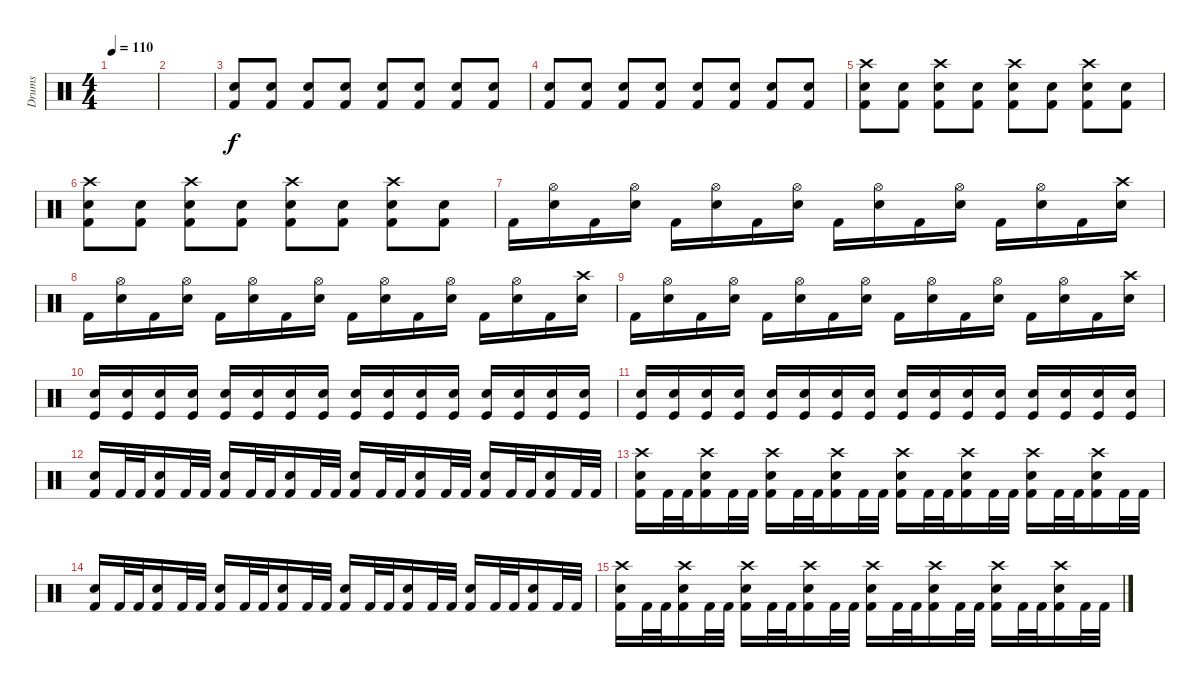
\track ("Drums" "Drums") {instrument percussion}
\staff {score}
\articulation defaults
\ts (4 4)
\tempo 110
\clef neutral
\ks c
|
|
("Electric Snare (hit)" "Kick (hit) 2").8 ("Electric Snare (hit)" "Kick (hit) 2").8 ("Electric Snare (hit)" "Kick (hit) 2").8 ("Electric Snare (hit)" "Kick (hit) 2").8 ("Electric Snare (hit)" "Kick (hit) 2").8 ("Electric Snare (hit)" "Kick (hit) 2").8 ("Electric Snare (hit)" "Kick (hit) 2").8 ("Electric Snare (hit)" "Kick (hit) 2").8 |
("Electric Snare (hit)" "Kick (hit) 2").8 ("Electric Snare (hit)" "Kick (hit) 2").8 ("Electric Snare (hit)" "Kick (hit) 2").8 ("Electric Snare (hit)" "Kick (hit) 2").8 ("Electric Snare (hit)" "Kick (hit) 2").8 ("Electric Snare (hit)" "Kick (hit) 2").8 ("Electric Snare (hit)" "Kick (hit) 2").8 ("Electric Snare (hit)" "Kick (hit) 2").8 |
("Crash high (hit)" "Electric Snare (hit)" "Kick (hit) 2").8 ("Electric Snare (hit)" "Kick (hit) 2").8 ("Crash high (hit)" "Electric Snare (hit)" "Kick (hit) 2").8 ("Electric Snare (hit)" "Kick (hit) 2").8 ("Crash high (hit)" "Electric Snare (hit)" "Kick (hit) 2").8 ("Electric Snare (hit)" "Kick (hit) 2").8 ("Crash high (hit)" "Electric Snare (hit)" "Kick (hit) 2").8 ("Electric Snare (hit)" "Kick (hit) 2").8 |
("Crash high (hit)" "Electric Snare (hit)" "Kick (hit) 2").8 ("Electric Snare (hit)" "Kick (hit) 2").8 ("Crash high (hit)" "Electric Snare (hit)" "Kick (hit) 2").8 ("Electric Snare (hit)" "Kick (hit) 2").8 ("Crash high (hit)" "Electric Snare (hit)" "Kick (hit) 2").8 ("Electric Snare (hit)" "Kick (hit) 2").8 ("Crash high (hit)" "Electric Snare (hit)" "Kick (hit) 2").8 ("Electric Snare (hit)" "Kick (hit) 2").8 |
"Kick (hit) 2".16 ("Hi-Hat (open)" "Electric Snare (hit)").16 "Kick (hit) 2".16 ("Hi-Hat (open)" "Electric Snare (hit)").16 "Kick (hit) 2".16 ("Hi-Hat (open)" "Electric Snare (hit)").16 "Kick (hit) 2".16 ("Hi-Hat (open)" "Electric Snare (hit)").16 "Kick (hit) 2".16 ("Hi-Hat (open)" "Electric Snare (hit)").16 "Kick (hit) 2".16 ("Hi-Hat (open)" "Electric Snare (hit)").16 "Kick (hit) 2".16 ("Hi-Hat (open)" "Electric Snare (hit)").16 "Kick (hit) 2".16 ("Crash high (hit)" "Electric Snare (hit)").16 |
"Kick (hit) 2".16 ("Hi-Hat (open)" "Electric Snare (hit)").16 "Kick (hit) 2".16 ("Hi-Hat (open)" "Electric Snare (hit)").16 "Kick (hit) 2".16 ("Hi-Hat (open)" "Electric Snare (hit)").16 "Kick (hit) 2".16 ("Hi-Hat (open)" "Electric Snare (hit)").16 "Kick (hit) 2".16 ("Hi-Hat (open)" "Electric Snare (hit)").16 "Kick (hit) 2".16 ("Hi-Hat (open)" "Electric Snare (hit)").16 "Kick (hit) 2".16 ("Hi-Hat (open)" "Electric Snare (hit)").16 "Kick (hit) 2".16 ("Crash high (hit)" "Electric Snare (hit)").16 |
"Kick (hit) 2".16 ("Hi-Hat (open)" "Electric Snare (hit)").16 "Kick (hit) 2".16 ("Hi-Hat (open)" "Electric Snare (hit)").16 "Kick (hit) 2".16 ("Hi-Hat (open)" "Electric Snare (hit)").16 "Kick (hit) 2".16 ("Hi-Hat (open)" "Electric Snare (hit)").16 "Kick (hit) 2".16 ("Hi-Hat (open)" "Electric Snare (hit)").16 "Kick (hit) 2".16 ("Hi-Hat (open)" "Electric Snare (hit)").16 "Kick (hit) 2".16 ("Hi-Hat (open)" "Electric Snare (hit)").16 "Kick (hit) 2".16 ("Crash high (hit)" "Electric Snare (hit)").16 |
("Electric Snare (hit)" "Kick (hit)").16 ("Electric Snare (hit)" "Kick (hit)").16 ("Electric Snare (hit)" "Kick (hit)").16 ("Electric Snare (hit)" "Kick (hit)").16 ("Electric Snare (hit)" "Kick (hit)").16 ("Electric Snare (hit)" "Kick (hit)").16 ("Electric Snare (hit)" "Kick (hit)").16 ("Electric Snare (hit)" "Kick (hit)").16 ("Electric Snare (hit)" "Kick (hit)").16 ("Electric Snare (hit)" "Kick (hit)").16 ("Electric Snare (hit)" "Kick (hit)").16 ("Electric Snare (hit)" "Kick (hit)").16 ("Electric Snare (hit)" "Kick (hit)").16 ("Electric Snare (hit)" "Kick (hit)").16 ("Electric Snare (hit)" "Kick (hit)").16 ("Electric Snare (hit)" "Kick (hit)").16 |
("Electric Snare (hit)" "Kick (hit)").16 ("Electric Snare (hit)" "Kick (hit)").16 ("Electric Snare (hit)" "Kick (hit)").16 ("Electric Snare (hit)" "Kick (hit)").16 ("Electric Snare (hit)" "Kick (hit)").16 ("Electric Snare (hit)" "Kick (hit)").16 ("Electric Snare (hit)" "Kick (hit)").16 ("Electric Snare (hit)" "Kick (hit)").16 ("Electric Snare (hit)" "Kick (hit)").16 ("Electric Snare (hit)" "Kick (hit)").16 ("Electric Snare (hit)" "Kick (hit)").16 ("Electric Snare (hit)" "Kick (hit)").16 ("Electric Snare (hit)" "Kick (hit)").16 ("Electric Snare (hit)" "Kick (hit)").16 ("Electric Snare (hit)" "Kick (hit)").16 ("Electric Snare (hit)" "Kick (hit)").16 |
("Electric Snare (hit)" "Kick (hit) 2").16 "Kick (hit) 2".32 "Kick (hit) 2".32 ("Electric Snare (hit)" "Kick (hit) 2").16 "Kick (hit) 2".32 "Kick (hit) 2".32 ("Electric Snare (hit)" "Kick (hit) 2").16 "Kick (hit) 2".32 "Kick (hit) 2".32 ("Electric Snare (hit)" "Kick (hit) 2").16 "Kick (hit) 2".32 "Kick (hit) 2".32 ("Electric Snare (hit)" "Kick (hit) 2").16 "Kick (hit) 2".32 "Kick (hit) 2".32 ("Electric Snare (hit)" "Kick (hit) 2").16 "Kick (hit) 2".32 "Kick (hit) 2".32 ("Electric Snare (hit)" "Kick (hit) 2").16 "Kick (hit) 2".32 "Kick (hit) 2".32 ("Electric Snare (hit)" "Kick (hit) 2").16 "Kick (hit) 2".32 "Kick (hit) 2".32 |
("Crash high (hit)" "Electric Snare (hit)" "Kick (hit) 2").16 "Kick (hit) 2".32 "Kick (hit) 2".32 ("Crash high (hit)" "Electric Snare (hit)" "Kick (hit) 2").16 "Kick (hit) 2".32 "Kick (hit) 2".32 ("Crash high (hit)" "Electric Snare (hit)" "Kick (hit) 2").16 "Kick (hit) 2".32 "Kick (hit) 2".32 ("Crash high (hit)" "Electric Snare (hit)" "Kick (hit) 2").16 "Kick (hit) 2".32 "Kick (hit) 2".32 ("Crash high (hit)" "Electric Snare (hit)" "Kick (hit) 2").16 "Kick (hit) 2".32 "Kick (hit) 2".32 ("Crash high (hit)" "Electric Snare (hit)" "Kick (hit) 2").16 "Kick (hit) 2".32 "Kick (hit) 2".32 ("Crash high (hit)" "Electric Snare (hit)" "Kick (hit) 2").16 "Kick (hit) 2".32 "Kick (hit) 2".32 ("Crash high (hit)" "Electric Snare (hit)" "Kick (hit) 2").16 "Kick (hit) 2".32 "Kick (hit) 2".32 |
("Electric Snare (hit)" "Kick (hit) 2").16 "Kick (hit) 2".32 "Kick (hit) 2".32 ("Electric Snare (hit)" "Kick (hit) 2").16 "Kick (hit) 2".32 "Kick (hit) 2".32 ("Electric Snare (hit)" "Kick (hit) 2").16 "Kick (hit) 2".32 "Kick (hit) 2".32 ("Electric Snare (hit)" "Kick (hit) 2").16 "Kick (hit) 2".32 "Kick (hit) 2".32 ("Electric Snare (hit)" "Kick (hit) 2").16 "Kick (hit) 2".32 "Kick (hit) 2".32 ("Electric Snare (hit)" "Kick (hit) 2").16 "Kick (hit) 2".32 "Kick (hit) 2".32 ("Electric Snare (hit)" "Kick (hit) 2").16 "Kick (hit) 2".32 "Kick (hit) 2".32 ("Electric Snare (hit)" "Kick (hit) 2").16 "Kick (hit) 2".32 "Kick (hit) 2".32 |
("Crash high (hit)" "Electric Snare (hit)" "Kick (hit) 2").16 "Kick (hit) 2".32 "Kick (hit) 2".32 ("Crash high (hit)" "Electric Snare (hit)" "Kick (hit) 2").16 "Kick (hit) 2".32 "Kick (hit) 2".32 ("Crash high (hit)" "Electric Snare (hit)" "Kick (hit) 2").16 "Kick (hit) 2".32 "Kick (hit) 2".32 ("Crash high (hit)" "Electric Snare (hit)" "Kick (hit) 2").16 "Kick (hit) 2".32 "Kick (hit) 2".32 ("Crash high (hit)" "Electric Snare (hit)" "Kick (hit) 2").16 "Kick (hit) 2".32 "Kick (hit) 2".32 ("Crash high (hit)" "Electric Snare (hit)" "Kick (hit) 2").16 "Kick (hit) 2".32 "Kick (hit) 2".32 ("Crash high (hit)" "Electric Snare (hit)" "Kick (hit) 2").16 "Kick (hit) 2".32 "Kick (hit) 2".32 ("Crash high (hit)" "Electric Snare (hit)" "Kick (hit) 2").16 "Kick (hit) 2".32 "Kick (hit) 2".32
